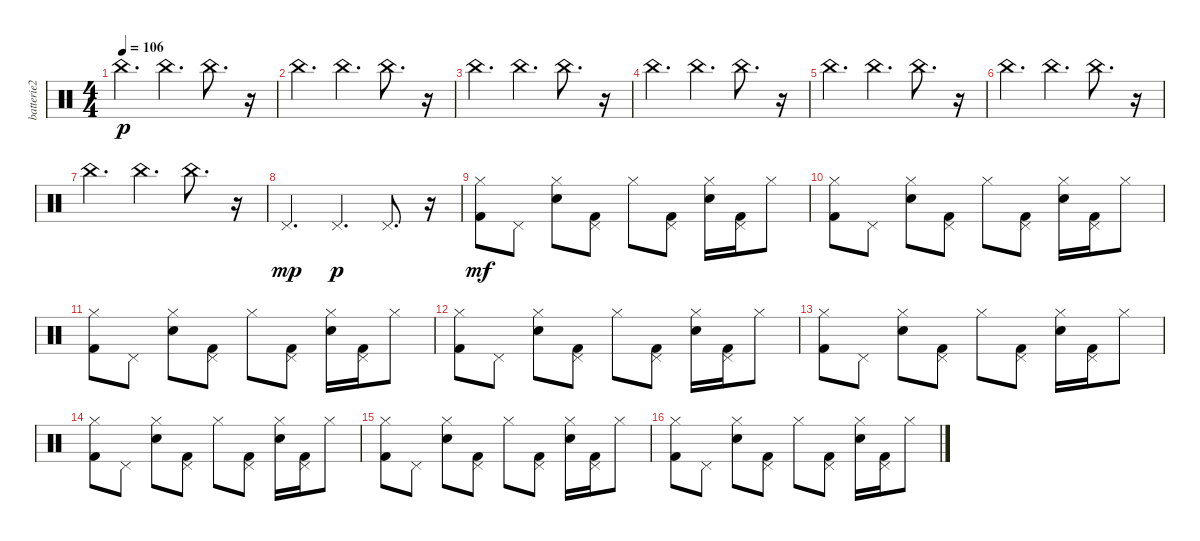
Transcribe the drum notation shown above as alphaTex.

\track ("batterie2" "batterie2") {instrument percussion}
\staff {score}
\articulation defaults
\ts (4 4)
\tempo 106
\clef neutral
\ks c "China (hit)".4{d dy p} "China (hit)".4{d} "China (hit)".8{d}
r.16 |
"China (hit)".4{d} "China (hit)".4{d} "China (hit)".8{d} r.16 |
"China (hit)".4{d} "China (hit)".4{d} "China (hit)".8{d} r.16 |
"China (hit)".4{d} "China (hit)".4{d} "China (hit)".8{d} r.16 |
"China (hit)".4{d} "China (hit)".4{d} "China (hit)".8{d} r.16 |
"China (hit)".4{d} "China (hit)".4{d} "China (hit)".8{d} r.16 |
"China (hit)".4{d} "China (hit)".4{d} "China (hit)".8{d} r.16 |
"Pedal Hi-Hat (hit)".4{d dy mp} "Pedal Hi-Hat (hit)".4{d dy p} "Pedal Hi-Hat (hit)".8{d} r.16 |
("Kick (hit) 2" "Hi-Hat (closed)").8{dy mf} "Pedal Hi-Hat (hit)".8 ("Snare (hit) 2" "Hi-Hat (closed)").8 ("Kick (hit) 2" "Pedal Hi-Hat (hit)").8 "Hi-Hat (closed)".8 ("Kick (hit) 2" "Pedal Hi-Hat (hit)").8 ("Snare (hit) 2" "Hi-Hat (closed)").16 ("Kick (hit) 2" "Pedal Hi-Hat (hit)").16 "Hi-Hat (closed)".8 |
("Kick (hit) 2" "Hi-Hat (closed)").8 "Pedal Hi-Hat (hit)".8 ("Snare (hit) 2" "Hi-Hat (closed)").8 ("Kick (hit) 2" "Pedal Hi-Hat (hit)").8 "Hi-Hat (closed)".8 ("Kick (hit) 2" "Pedal Hi-Hat (hit)").8 ("Snare (hit) 2" "Hi-Hat (closed)").16 ("Kick (hit) 2" "Pedal Hi-Hat (hit)").16 "Hi-Hat (closed)".8 |
("Kick (hit) 2" "Hi-Hat (closed)").8 "Pedal Hi-Hat (hit)".8 ("Snare (hit) 2" "Hi-Hat (closed)").8 ("Kick (hit) 2" "Pedal Hi-Hat (hit)").8 "Hi-Hat (closed)".8 ("Kick (hit) 2" "Pedal Hi-Hat (hit)").8 ("Snare (hit) 2" "Hi-Hat (closed)").16 ("Kick (hit) 2" "Pedal Hi-Hat (hit)").16 "Hi-Hat (closed)".8 |
("Kick (hit) 2" "Hi-Hat (closed)").8 "Pedal Hi-Hat (hit)".8 ("Snare (hit) 2" "Hi-Hat (closed)").8 ("Kick (hit) 2" "Pedal Hi-Hat (hit)").8 "Hi-Hat (closed)".8 ("Kick (hit) 2" "Pedal Hi-Hat (hit)").8 ("Snare (hit) 2" "Hi-Hat (closed)").16 ("Kick (hit) 2" "Pedal Hi-Hat (hit)").16 "Hi-Hat (closed)".8 |
("Kick (hit) 2" "Hi-Hat (closed)").8 "Pedal Hi-Hat (hit)".8 ("Snare (hit) 2" "Hi-Hat (closed)").8 ("Kick (hit) 2" "Pedal Hi-Hat (hit)").8 "Hi-Hat (closed)".8 ("Kick (hit) 2" "Pedal Hi-Hat (hit)").8 ("Snare (hit) 2" "Hi-Hat (closed)").16 ("Kick (hit) 2" "Pedal Hi-Hat (hit)").16 "Hi-Hat (closed)".8 |
("Kick (hit) 2" "Hi-Hat (closed)").8 "Pedal Hi-Hat (hit)".8 ("Snare (hit) 2" "Hi-Hat (closed)").8 ("Kick (hit) 2" "Pedal Hi-Hat (hit)").8 "Hi-Hat (closed)".8 ("Kick (hit) 2" "Pedal Hi-Hat (hit)").8 ("Snare (hit) 2" "Hi-Hat (closed)").16 ("Kick (hit) 2" "Pedal Hi-Hat (hit)").16 "Hi-Hat (closed)".8 |
("Kick (hit) 2" "Hi-Hat (closed)").8 "Pedal Hi-Hat (hit)".8 ("Snare (hit) 2" "Hi-Hat (closed)").8 ("Kick (hit) 2" "Pedal Hi-Hat (hit)").8 "Hi-Hat (closed)".8 ("Kick (hit) 2" "Pedal Hi-Hat (hit)").8 ("Snare (hit) 2" "Hi-Hat (closed)").16 ("Kick (hit) 2" "Pedal Hi-Hat (hit)").16 "Hi-Hat (closed)".8 |
("Kick (hit) 2" "Hi-Hat (closed)").8 "Pedal Hi-Hat (hit)".8 ("Snare (hit) 2" "Hi-Hat (closed)").8 ("Kick (hit) 2" "Pedal Hi-Hat (hit)").8 "Hi-Hat (closed)".8 ("Kick (hit) 2" "Pedal Hi-Hat (hit)").8 ("Snare (hit) 2" "Hi-Hat (closed)").16 ("Kick (hit) 2" "Pedal Hi-Hat (hit)").16 "Hi-Hat (closed)".8
